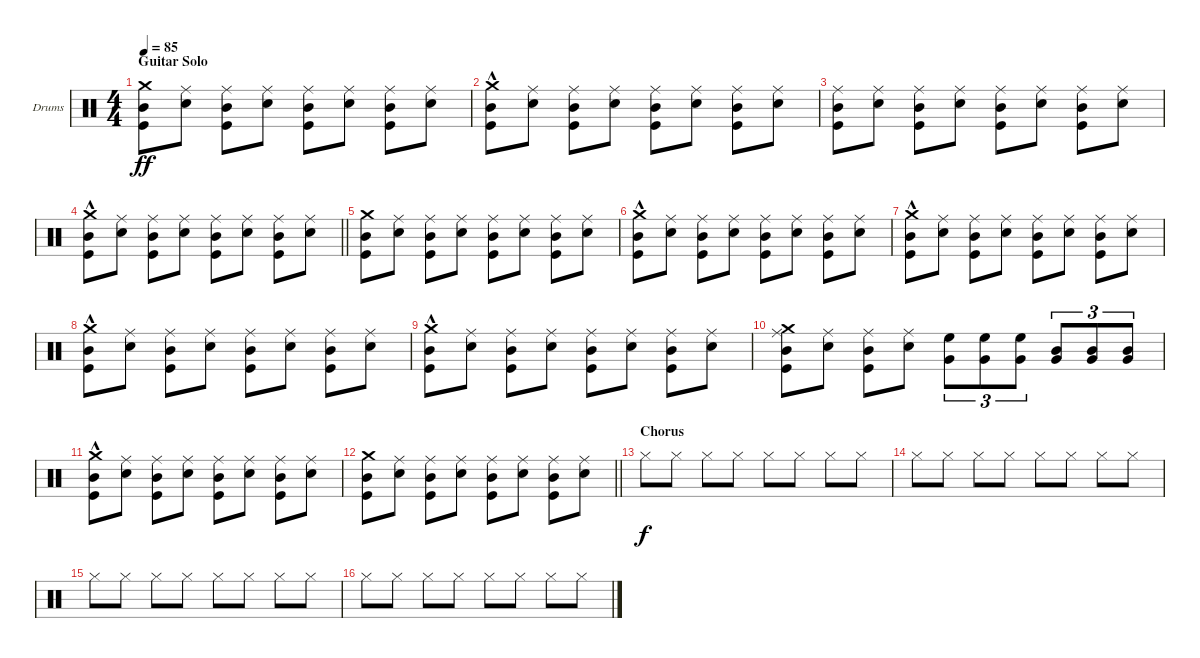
\bracketExtendMode groupsimilarinstruments
\firstSystemTrackNameOrientation horizontal
\otherSystemsTrackNameOrientation horizontal
\track ("Drumkit" "Drums") {instrument percussion}
\staff {score}
\articulation defaults
\ts (4 4)
\section ("" "Guitar Solo")
\tempo 85
\clef neutral
\ks c
("Crash medium (hit)" "Kick (hit)" "Mid Tom (hit)").8{dy ff} ("Ride (middle)" "Snare (hit) 2").8 ("Ride (middle)" "Kick (hit)" "Mid Tom (hit)").8 ("Ride (middle)" "Snare (hit) 2").8 ("Ride (middle)" "Kick (hit)" "Mid Tom (hit)").8 ("Ride (middle)" "Snare (hit) 2").8 ("Ride (middle)" "Kick (hit)" "Mid Tom (hit)").8 ("Ride (middle)" "Snare (hit) 2").8 |
("Crash medium (hit)"{hac} "Kick (hit)" "Mid Tom (hit)").8 ("Ride (middle)" "Snare (hit) 2").8 ("Ride (middle)" "Kick (hit)" "Mid Tom (hit)").8 ("Ride (middle)" "Snare (hit) 2").8 ("Ride (middle)" "Kick (hit)" "Mid Tom (hit)").8 ("Ride (middle)" "Snare (hit) 2").8 ("Ride (middle)" "Kick (hit)" "Mid Tom (hit)").8 ("Ride (middle)" "Snare (hit) 2").8 |
("Kick (hit)" "Mid Tom (hit)" "Ride (middle)").8 ("Ride (middle)" "Snare (hit) 2").8 ("Ride (middle)" "Kick (hit)" "Mid Tom (hit)").8 ("Ride (middle)" "Snare (hit) 2").8 ("Ride (middle)" "Kick (hit)" "Mid Tom (hit)").8 ("Ride (middle)" "Snare (hit) 2").8 ("Ride (middle)" "Kick (hit)" "Mid Tom (hit)").8 ("Ride (middle)" "Snare (hit) 2").8 |
\barLineRight lightlight
("Crash medium (hit)"{hac} "Kick (hit)" "Mid Tom (hit)").8 ("Ride (middle)" "Snare (hit) 2").8 ("Ride (middle)" "Kick (hit)" "Mid Tom (hit)").8 ("Ride (middle)" "Snare (hit) 2").8 ("Ride (middle)" "Kick (hit)" "Mid Tom (hit)").8 ("Ride (middle)" "Snare (hit) 2").8 ("Ride (middle)" "Kick (hit)" "Mid Tom (hit)").8 ("Ride (middle)" "Snare (hit) 2").8 |
("Crash medium (hit)" "Kick (hit)" "Mid Tom (hit)").8 ("Ride (middle)" "Snare (hit) 2").8 ("Ride (middle)" "Kick (hit)" "Mid Tom (hit)").8 ("Ride (middle)" "Snare (hit) 2").8 ("Ride (middle)" "Kick (hit)" "Mid Tom (hit)").8 ("Ride (middle)" "Snare (hit) 2").8 ("Ride (middle)" "Kick (hit)" "Mid Tom (hit)").8 ("Ride (middle)" "Snare (hit) 2").8 |
("Crash medium (hit)"{hac} "Kick (hit)" "Mid Tom (hit)").8 ("Ride (middle)" "Snare (hit) 2").8 ("Ride (middle)" "Kick (hit)" "Mid Tom (hit)").8 ("Ride (middle)" "Snare (hit) 2").8 ("Ride (middle)" "Kick (hit)" "Mid Tom (hit)").8 ("Ride (middle)" "Snare (hit) 2").8 ("Ride (middle)" "Kick (hit)" "Mid Tom (hit)").8 ("Ride (middle)" "Snare (hit) 2").8 |
("Crash medium (hit)"{hac} "Kick (hit)" "Mid Tom (hit)").8 ("Ride (middle)" "Snare (hit) 2").8 ("Ride (middle)" "Kick (hit)" "Mid Tom (hit)").8 ("Ride (middle)" "Snare (hit) 2").8 ("Ride (middle)" "Kick (hit)" "Mid Tom (hit)").8 ("Ride (middle)" "Snare (hit) 2").8 ("Ride (middle)" "Kick (hit)" "Mid Tom (hit)").8 ("Ride (middle)" "Snare (hit) 2").8 |
("Crash medium (hit)"{hac} "Kick (hit)" "Mid Tom (hit)").8 ("Ride (middle)" "Snare (hit) 2").8 ("Ride (middle)" "Kick (hit)" "Mid Tom (hit)").8 ("Ride (middle)" "Snare (hit) 2").8 ("Ride (middle)" "Kick (hit)" "Mid Tom (hit)").8 ("Ride (middle)" "Snare (hit) 2").8 ("Ride (middle)" "Kick (hit)" "Mid Tom (hit)").8 ("Ride (middle)" "Snare (hit) 2").8 |
("Crash medium (hit)"{hac} "Kick (hit)" "Mid Tom (hit)").8 ("Ride (middle)" "Snare (hit) 2").8 ("Ride (middle)" "Kick (hit)" "Mid Tom (hit)").8 ("Ride (middle)" "Snare (hit) 2").8 ("Ride (middle)" "Kick (hit)" "Mid Tom (hit)").8 ("Ride (middle)" "Snare (hit) 2").8 ("Ride (middle)" "Kick (hit)" "Mid Tom (hit)").8 ("Ride (middle)" "Snare (hit) 2").8 |
("Ride (middle)" "Kick (hit)" "Mid Tom (hit)" "Crash medium (hit)").8 ("Ride (middle)" "Snare (hit) 2").8 ("Ride (middle)" "Kick (hit)" "Mid Tom (hit)").8 ("Ride (middle)" "Snare (hit) 2").8 ("High Floor Tom (hit)" "Very Low Tom (hit)").8{tu (3 2)} ("High Floor Tom (hit)" "Very Low Tom (hit)").8{tu (3 2)} ("High Floor Tom (hit)" "Very Low Tom (hit)").8{tu (3 2)} ("Mid Tom (hit)" "Very Low Tom (hit)").8{tu (3 2)} ("Mid Tom (hit)" "Very Low Tom (hit)").8{tu (3 2)} ("Mid Tom (hit)" "Very Low Tom (hit)").8{tu (3 2)} |
("Crash medium (hit)"{hac} "Kick (hit)" "Mid Tom (hit)").8 ("Ride (middle)" "Snare (hit) 2").8 ("Ride (middle)" "Kick (hit)" "Mid Tom (hit)").8 ("Ride (middle)" "Snare (hit) 2").8 ("Ride (middle)" "Kick (hit)" "Mid Tom (hit)").8 ("Ride (middle)" "Snare (hit) 2").8 ("Ride (middle)" "Kick (hit)" "Mid Tom (hit)").8 ("Ride (middle)" "Snare (hit) 2").8 |
\barLineRight lightlight
("Crash medium (hit)" "Kick (hit)" "Mid Tom (hit)").8 ("Ride (middle)" "Snare (hit) 2").8 ("Ride (middle)" "Kick (hit)" "Mid Tom (hit)").8 ("Ride (middle)" "Snare (hit) 2").8 ("Ride (middle)" "Kick (hit)" "Mid Tom (hit)").8 ("Ride (middle)" "Snare (hit) 2").8 ("Ride (middle)" "Kick (hit)" "Mid Tom (hit)").8 ("Ride (middle)" "Snare (hit) 2").8 |
\section ("" "Chorus")
"Hi-Hat (closed)".8{dy f} "Hi-Hat (closed)".8 "Hi-Hat (closed)".8 "Hi-Hat (closed)".8 "Hi-Hat (closed)".8 "Hi-Hat (closed)".8 "Hi-Hat (closed)".8 "Hi-Hat (closed)".8 |
"Hi-Hat (closed)".8 "Hi-Hat (closed)".8 "Hi-Hat (closed)".8 "Hi-Hat (closed)".8 "Hi-Hat (closed)".8 "Hi-Hat (closed)".8 "Hi-Hat (closed)".8 "Hi-Hat (closed)".8 |
"Hi-Hat (closed)".8 "Hi-Hat (closed)".8 "Hi-Hat (closed)".8 "Hi-Hat (closed)".8 "Hi-Hat (closed)".8 "Hi-Hat (closed)".8 "Hi-Hat (closed)".8 "Hi-Hat (closed)".8 |
"Hi-Hat (closed)".8 "Hi-Hat (closed)".8 "Hi-Hat (closed)".8 "Hi-Hat (closed)".8 "Hi-Hat (closed)".8 "Hi-Hat (closed)".8 "Hi-Hat (closed)".8 "Hi-Hat (closed)".8
